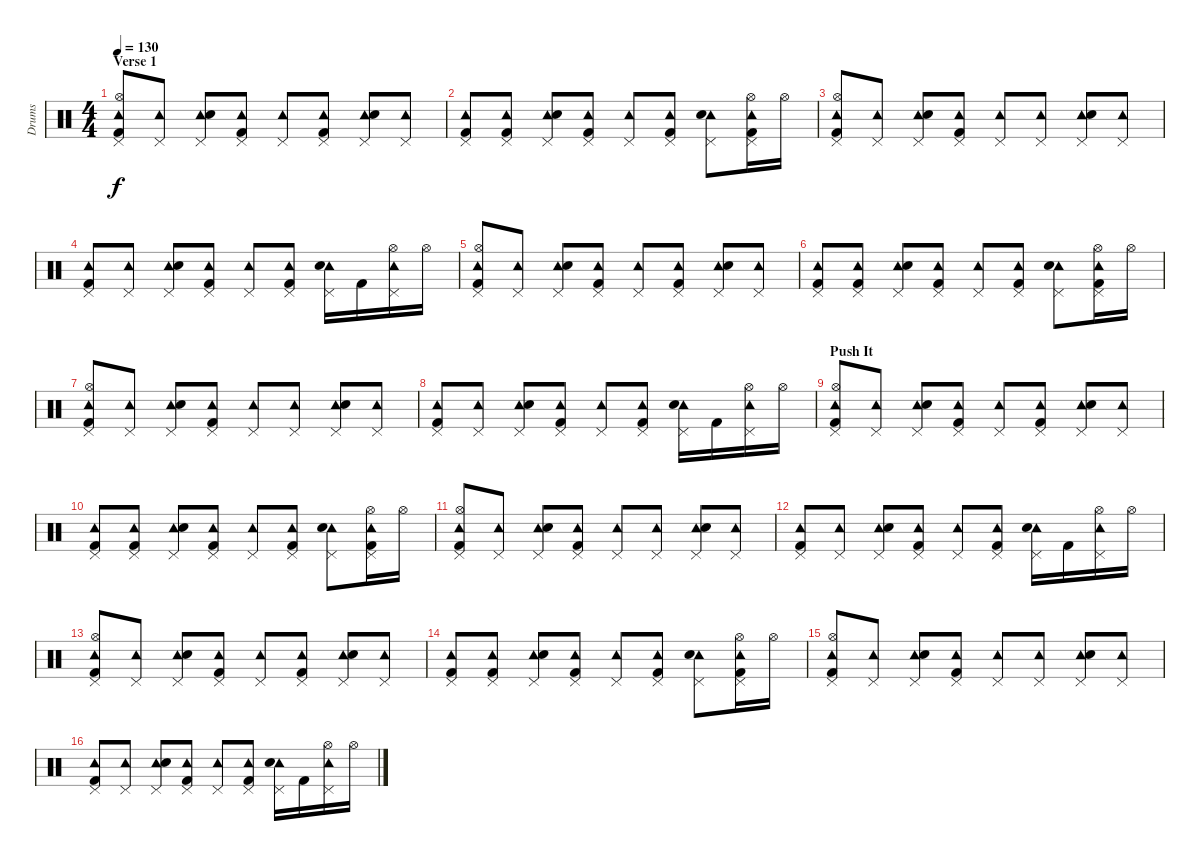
\track ("Drums" "Drums") {instrument percussion}
\staff {score}
\articulation defaults
\ts (4 4)
\section ("" "Verse 1")
\tempo 130
\clef neutral
\ks c
("Tambourine (hit)" "Pedal Hi-Hat (hit)" "Hi-Hat (open)" "Kick (hit) 2").8{dy f} ("Tambourine (hit)" "Pedal Hi-Hat (hit)").8 ("Tambourine (hit)" "Pedal Hi-Hat (hit)" "Electric Snare (hit)").8 ("Tambourine (hit)" "Pedal Hi-Hat (hit)" "Kick (hit) 2").8 ("Tambourine (hit)" "Pedal Hi-Hat (hit)").8 ("Tambourine (hit)" "Pedal Hi-Hat (hit)" "Kick (hit) 2").8 ("Tambourine (hit)" "Pedal Hi-Hat (hit)" "Electric Snare (hit)").8 ("Tambourine (hit)" "Pedal Hi-Hat (hit)").8 |
("Tambourine (hit)" "Pedal Hi-Hat (hit)" "Kick (hit) 2").8 ("Tambourine (hit)" "Pedal Hi-Hat (hit)" "Kick (hit) 2").8 ("Tambourine (hit)" "Pedal Hi-Hat (hit)" "Electric Snare (hit)").8 ("Tambourine (hit)" "Pedal Hi-Hat (hit)" "Kick (hit) 2").8 ("Tambourine (hit)" "Pedal Hi-Hat (hit)").8 ("Tambourine (hit)" "Pedal Hi-Hat (hit)" "Kick (hit) 2").8 ("Tambourine (hit)" "Pedal Hi-Hat (hit)" "Electric Snare (hit)").8 ("Tambourine (hit)" "Pedal Hi-Hat (hit)" "Hi-Hat (open)" "Kick (hit) 2").16 "Hi-Hat (open)".16 |
("Tambourine (hit)" "Pedal Hi-Hat (hit)" "Hi-Hat (open)" "Kick (hit) 2").8 ("Tambourine (hit)" "Pedal Hi-Hat (hit)").8 ("Tambourine (hit)" "Pedal Hi-Hat (hit)" "Electric Snare (hit)").8 ("Tambourine (hit)" "Pedal Hi-Hat (hit)" "Kick (hit) 2").8 ("Tambourine (hit)" "Pedal Hi-Hat (hit)").8 ("Tambourine (hit)" "Pedal Hi-Hat (hit)").8 ("Tambourine (hit)" "Pedal Hi-Hat (hit)" "Electric Snare (hit)").8 ("Tambourine (hit)" "Pedal Hi-Hat (hit)").8 |
("Tambourine (hit)" "Pedal Hi-Hat (hit)" "Kick (hit) 2").8 ("Tambourine (hit)" "Pedal Hi-Hat (hit)").8 ("Tambourine (hit)" "Pedal Hi-Hat (hit)" "Electric Snare (hit)").8 ("Tambourine (hit)" "Pedal Hi-Hat (hit)" "Kick (hit) 2").8 ("Tambourine (hit)" "Pedal Hi-Hat (hit)").8 ("Tambourine (hit)" "Pedal Hi-Hat (hit)" "Kick (hit) 2").8 ("Tambourine (hit)" "Pedal Hi-Hat (hit)" "Electric Snare (hit)").16 "Kick (hit) 2".16 ("Tambourine (hit)" "Pedal Hi-Hat (hit)" "Hi-Hat (open)").16 "Hi-Hat (open)".16 |
("Tambourine (hit)" "Pedal Hi-Hat (hit)" "Hi-Hat (open)" "Kick (hit) 2").8 ("Tambourine (hit)" "Pedal Hi-Hat (hit)").8 ("Tambourine (hit)" "Pedal Hi-Hat (hit)" "Electric Snare (hit)").8 ("Tambourine (hit)" "Pedal Hi-Hat (hit)" "Kick (hit) 2").8 ("Tambourine (hit)" "Pedal Hi-Hat (hit)").8 ("Tambourine (hit)" "Pedal Hi-Hat (hit)" "Kick (hit) 2").8 ("Tambourine (hit)" "Pedal Hi-Hat (hit)" "Electric Snare (hit)").8 ("Tambourine (hit)" "Pedal Hi-Hat (hit)").8 |
("Tambourine (hit)" "Pedal Hi-Hat (hit)" "Kick (hit) 2").8 ("Tambourine (hit)" "Pedal Hi-Hat (hit)" "Kick (hit) 2").8 ("Tambourine (hit)" "Pedal Hi-Hat (hit)" "Electric Snare (hit)").8 ("Tambourine (hit)" "Pedal Hi-Hat (hit)" "Kick (hit) 2").8 ("Tambourine (hit)" "Pedal Hi-Hat (hit)").8 ("Tambourine (hit)" "Pedal Hi-Hat (hit)" "Kick (hit) 2").8 ("Tambourine (hit)" "Pedal Hi-Hat (hit)" "Electric Snare (hit)").8 ("Tambourine (hit)" "Pedal Hi-Hat (hit)" "Hi-Hat (open)" "Kick (hit) 2").16 "Hi-Hat (open)".16 |
("Tambourine (hit)" "Pedal Hi-Hat (hit)" "Hi-Hat (open)" "Kick (hit) 2").8 ("Tambourine (hit)" "Pedal Hi-Hat (hit)").8 ("Tambourine (hit)" "Pedal Hi-Hat (hit)" "Electric Snare (hit)").8 ("Tambourine (hit)" "Pedal Hi-Hat (hit)" "Kick (hit) 2").8 ("Tambourine (hit)" "Pedal Hi-Hat (hit)").8 ("Tambourine (hit)" "Pedal Hi-Hat (hit)").8 ("Tambourine (hit)" "Pedal Hi-Hat (hit)" "Electric Snare (hit)").8 ("Tambourine (hit)" "Pedal Hi-Hat (hit)").8 |
("Tambourine (hit)" "Pedal Hi-Hat (hit)" "Kick (hit) 2").8 ("Tambourine (hit)" "Pedal Hi-Hat (hit)").8 ("Tambourine (hit)" "Pedal Hi-Hat (hit)" "Electric Snare (hit)").8 ("Tambourine (hit)" "Pedal Hi-Hat (hit)" "Kick (hit) 2").8 ("Tambourine (hit)" "Pedal Hi-Hat (hit)").8 ("Tambourine (hit)" "Pedal Hi-Hat (hit)" "Kick (hit) 2").8 ("Tambourine (hit)" "Pedal Hi-Hat (hit)" "Electric Snare (hit)").16 "Kick (hit) 2".16 ("Tambourine (hit)" "Pedal Hi-Hat (hit)" "Hi-Hat (open)").16 "Hi-Hat (open)".16 |
\section ("" "Push It")
("Tambourine (hit)" "Pedal Hi-Hat (hit)" "Hi-Hat (open)" "Kick (hit) 2").8 ("Tambourine (hit)" "Pedal Hi-Hat (hit)").8 ("Tambourine (hit)" "Pedal Hi-Hat (hit)" "Electric Snare (hit)").8 ("Tambourine (hit)" "Pedal Hi-Hat (hit)" "Kick (hit) 2").8 ("Tambourine (hit)" "Pedal Hi-Hat (hit)").8 ("Tambourine (hit)" "Pedal Hi-Hat (hit)" "Kick (hit) 2").8 ("Tambourine (hit)" "Pedal Hi-Hat (hit)" "Electric Snare (hit)").8 ("Tambourine (hit)" "Pedal Hi-Hat (hit)").8 |
("Tambourine (hit)" "Pedal Hi-Hat (hit)" "Kick (hit) 2").8 ("Tambourine (hit)" "Pedal Hi-Hat (hit)" "Kick (hit) 2").8 ("Tambourine (hit)" "Pedal Hi-Hat (hit)" "Electric Snare (hit)").8 ("Tambourine (hit)" "Pedal Hi-Hat (hit)" "Kick (hit) 2").8 ("Tambourine (hit)" "Pedal Hi-Hat (hit)").8 ("Tambourine (hit)" "Pedal Hi-Hat (hit)" "Kick (hit) 2").8 ("Tambourine (hit)" "Pedal Hi-Hat (hit)" "Electric Snare (hit)").8 ("Tambourine (hit)" "Pedal Hi-Hat (hit)" "Hi-Hat (open)" "Kick (hit) 2").16 "Hi-Hat (open)".16 |
("Tambourine (hit)" "Pedal Hi-Hat (hit)" "Hi-Hat (open)" "Kick (hit) 2").8 ("Tambourine (hit)" "Pedal Hi-Hat (hit)").8 ("Tambourine (hit)" "Pedal Hi-Hat (hit)" "Electric Snare (hit)").8 ("Tambourine (hit)" "Pedal Hi-Hat (hit)" "Kick (hit) 2").8 ("Tambourine (hit)" "Pedal Hi-Hat (hit)").8 ("Tambourine (hit)" "Pedal Hi-Hat (hit)").8 ("Tambourine (hit)" "Pedal Hi-Hat (hit)" "Electric Snare (hit)").8 ("Tambourine (hit)" "Pedal Hi-Hat (hit)").8 |
("Tambourine (hit)" "Pedal Hi-Hat (hit)" "Kick (hit) 2").8 ("Tambourine (hit)" "Pedal Hi-Hat (hit)").8 ("Tambourine (hit)" "Pedal Hi-Hat (hit)" "Electric Snare (hit)").8 ("Tambourine (hit)" "Pedal Hi-Hat (hit)" "Kick (hit) 2").8 ("Tambourine (hit)" "Pedal Hi-Hat (hit)").8 ("Tambourine (hit)" "Pedal Hi-Hat (hit)" "Kick (hit) 2").8 ("Tambourine (hit)" "Pedal Hi-Hat (hit)" "Electric Snare (hit)").16 "Kick (hit) 2".16 ("Tambourine (hit)" "Pedal Hi-Hat (hit)" "Hi-Hat (open)").16 "Hi-Hat (open)".16 |
("Tambourine (hit)" "Pedal Hi-Hat (hit)" "Hi-Hat (open)" "Kick (hit) 2").8 ("Tambourine (hit)" "Pedal Hi-Hat (hit)").8 ("Tambourine (hit)" "Pedal Hi-Hat (hit)" "Electric Snare (hit)").8 ("Tambourine (hit)" "Pedal Hi-Hat (hit)" "Kick (hit) 2").8 ("Tambourine (hit)" "Pedal Hi-Hat (hit)").8 ("Tambourine (hit)" "Pedal Hi-Hat (hit)" "Kick (hit) 2").8 ("Tambourine (hit)" "Pedal Hi-Hat (hit)" "Electric Snare (hit)").8 ("Tambourine (hit)" "Pedal Hi-Hat (hit)").8 |
("Tambourine (hit)" "Pedal Hi-Hat (hit)" "Kick (hit) 2").8 ("Tambourine (hit)" "Pedal Hi-Hat (hit)" "Kick (hit) 2").8 ("Tambourine (hit)" "Pedal Hi-Hat (hit)" "Electric Snare (hit)").8 ("Tambourine (hit)" "Pedal Hi-Hat (hit)" "Kick (hit) 2").8 ("Tambourine (hit)" "Pedal Hi-Hat (hit)").8 ("Tambourine (hit)" "Pedal Hi-Hat (hit)" "Kick (hit) 2").8 ("Tambourine (hit)" "Pedal Hi-Hat (hit)" "Electric Snare (hit)").8 ("Tambourine (hit)" "Pedal Hi-Hat (hit)" "Hi-Hat (open)" "Kick (hit) 2").16 "Hi-Hat (open)".16 |
("Tambourine (hit)" "Pedal Hi-Hat (hit)" "Hi-Hat (open)" "Kick (hit) 2").8 ("Tambourine (hit)" "Pedal Hi-Hat (hit)").8 ("Tambourine (hit)" "Pedal Hi-Hat (hit)" "Electric Snare (hit)").8 ("Tambourine (hit)" "Pedal Hi-Hat (hit)" "Kick (hit) 2").8 ("Tambourine (hit)" "Pedal Hi-Hat (hit)").8 ("Tambourine (hit)" "Pedal Hi-Hat (hit)").8 ("Tambourine (hit)" "Pedal Hi-Hat (hit)" "Electric Snare (hit)").8 ("Tambourine (hit)" "Pedal Hi-Hat (hit)").8 |
("Tambourine (hit)" "Pedal Hi-Hat (hit)" "Kick (hit) 2").8 ("Tambourine (hit)" "Pedal Hi-Hat (hit)").8 ("Tambourine (hit)" "Pedal Hi-Hat (hit)" "Electric Snare (hit)").8 ("Tambourine (hit)" "Pedal Hi-Hat (hit)" "Kick (hit) 2").8 ("Tambourine (hit)" "Pedal Hi-Hat (hit)").8 ("Tambourine (hit)" "Pedal Hi-Hat (hit)" "Kick (hit) 2").8 ("Tambourine (hit)" "Pedal Hi-Hat (hit)" "Electric Snare (hit)").16 "Kick (hit) 2".16 ("Tambourine (hit)" "Pedal Hi-Hat (hit)" "Hi-Hat (open)").16 "Hi-Hat (open)".16
